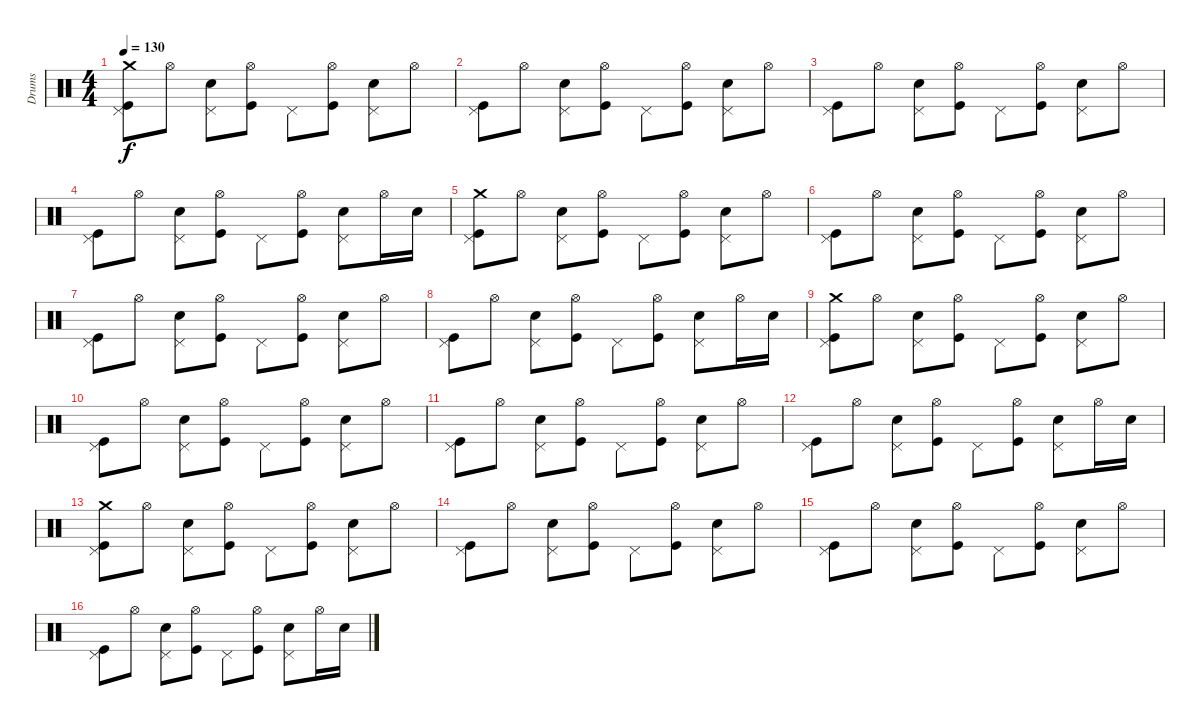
\track ("Drums" "Drums") {instrument percussion}
\staff {score}
\articulation defaults
\ts (4 4)
\tempo 130
\clef neutral
\ks c
("Kick (hit)" "Crash medium (hit)" "Pedal Hi-Hat (hit)").8{dy f} "Hi-Hat (open)".8 ("Electric Snare (hit)" "Pedal Hi-Hat (hit)").8 ("Kick (hit)" "Hi-Hat (open)").8 "Pedal Hi-Hat (hit)".8 ("Kick (hit)" "Hi-Hat (open)").8 ("Electric Snare (hit)" "Pedal Hi-Hat (hit)").8 "Hi-Hat (open)".8 |
("Kick (hit)" "Pedal Hi-Hat (hit)").8 "Hi-Hat (open)".8 ("Electric Snare (hit)" "Pedal Hi-Hat (hit)").8 ("Kick (hit)" "Hi-Hat (open)").8 "Pedal Hi-Hat (hit)".8 ("Kick (hit)" "Hi-Hat (open)").8 ("Electric Snare (hit)" "Pedal Hi-Hat (hit)").8 "Hi-Hat (open)".8 |
("Kick (hit)" "Pedal Hi-Hat (hit)").8 "Hi-Hat (open)".8 ("Electric Snare (hit)" "Pedal Hi-Hat (hit)").8 ("Kick (hit)" "Hi-Hat (open)").8 "Pedal Hi-Hat (hit)".8 ("Kick (hit)" "Hi-Hat (open)").8 ("Electric Snare (hit)" "Pedal Hi-Hat (hit)").8 "Hi-Hat (open)".8 |
("Kick (hit)" "Pedal Hi-Hat (hit)").8 "Hi-Hat (open)".8 ("Electric Snare (hit)" "Pedal Hi-Hat (hit)").8 ("Kick (hit)" "Hi-Hat (open)").8 "Pedal Hi-Hat (hit)".8 ("Kick (hit)" "Hi-Hat (open)").8 ("Electric Snare (hit)" "Pedal Hi-Hat (hit)").8 "Hi-Hat (open)".16 "Electric Snare (hit)".16 |
("Kick (hit)" "Crash medium (hit)" "Pedal Hi-Hat (hit)").8 "Hi-Hat (open)".8 ("Electric Snare (hit)" "Pedal Hi-Hat (hit)").8 ("Kick (hit)" "Hi-Hat (open)").8 "Pedal Hi-Hat (hit)".8 ("Kick (hit)" "Hi-Hat (open)").8 ("Electric Snare (hit)" "Pedal Hi-Hat (hit)").8 "Hi-Hat (open)".8 |
("Kick (hit)" "Pedal Hi-Hat (hit)").8 "Hi-Hat (open)".8 ("Electric Snare (hit)" "Pedal Hi-Hat (hit)").8 ("Kick (hit)" "Hi-Hat (open)").8 "Pedal Hi-Hat (hit)".8 ("Kick (hit)" "Hi-Hat (open)").8 ("Electric Snare (hit)" "Pedal Hi-Hat (hit)").8 "Hi-Hat (open)".8 |
("Kick (hit)" "Pedal Hi-Hat (hit)").8 "Hi-Hat (open)".8 ("Electric Snare (hit)" "Pedal Hi-Hat (hit)").8 ("Kick (hit)" "Hi-Hat (open)").8 "Pedal Hi-Hat (hit)".8 ("Kick (hit)" "Hi-Hat (open)").8 ("Electric Snare (hit)" "Pedal Hi-Hat (hit)").8 "Hi-Hat (open)".8 |
("Kick (hit)" "Pedal Hi-Hat (hit)").8 "Hi-Hat (open)".8 ("Electric Snare (hit)" "Pedal Hi-Hat (hit)").8 ("Kick (hit)" "Hi-Hat (open)").8 "Pedal Hi-Hat (hit)".8 ("Kick (hit)" "Hi-Hat (open)").8 ("Electric Snare (hit)" "Pedal Hi-Hat (hit)").8 "Hi-Hat (open)".16 "Electric Snare (hit)".16 |
("Kick (hit)" "Crash medium (hit)" "Pedal Hi-Hat (hit)").8 "Hi-Hat (open)".8 ("Electric Snare (hit)" "Pedal Hi-Hat (hit)").8 ("Kick (hit)" "Hi-Hat (open)").8 "Pedal Hi-Hat (hit)".8 ("Kick (hit)" "Hi-Hat (open)").8 ("Electric Snare (hit)" "Pedal Hi-Hat (hit)").8 "Hi-Hat (open)".8 |
("Kick (hit)" "Pedal Hi-Hat (hit)").8 "Hi-Hat (open)".8 ("Electric Snare (hit)" "Pedal Hi-Hat (hit)").8 ("Kick (hit)" "Hi-Hat (open)").8 "Pedal Hi-Hat (hit)".8 ("Kick (hit)" "Hi-Hat (open)").8 ("Electric Snare (hit)" "Pedal Hi-Hat (hit)").8 "Hi-Hat (open)".8 |
("Kick (hit)" "Pedal Hi-Hat (hit)").8 "Hi-Hat (open)".8 ("Electric Snare (hit)" "Pedal Hi-Hat (hit)").8 ("Kick (hit)" "Hi-Hat (open)").8 "Pedal Hi-Hat (hit)".8 ("Kick (hit)" "Hi-Hat (open)").8 ("Electric Snare (hit)" "Pedal Hi-Hat (hit)").8 "Hi-Hat (open)".8 |
("Kick (hit)" "Pedal Hi-Hat (hit)").8 "Hi-Hat (open)".8 ("Electric Snare (hit)" "Pedal Hi-Hat (hit)").8 ("Kick (hit)" "Hi-Hat (open)").8 "Pedal Hi-Hat (hit)".8 ("Kick (hit)" "Hi-Hat (open)").8 ("Electric Snare (hit)" "Pedal Hi-Hat (hit)").8 "Hi-Hat (open)".16 "Electric Snare (hit)".16 |
("Kick (hit)" "Crash medium (hit)" "Pedal Hi-Hat (hit)").8 "Hi-Hat (open)".8 ("Electric Snare (hit)" "Pedal Hi-Hat (hit)").8 ("Kick (hit)" "Hi-Hat (open)").8 "Pedal Hi-Hat (hit)".8 ("Kick (hit)" "Hi-Hat (open)").8 ("Electric Snare (hit)" "Pedal Hi-Hat (hit)").8 "Hi-Hat (open)".8 |
("Kick (hit)" "Pedal Hi-Hat (hit)").8 "Hi-Hat (open)".8 ("Electric Snare (hit)" "Pedal Hi-Hat (hit)").8 ("Kick (hit)" "Hi-Hat (open)").8 "Pedal Hi-Hat (hit)".8 ("Kick (hit)" "Hi-Hat (open)").8 ("Electric Snare (hit)" "Pedal Hi-Hat (hit)").8 "Hi-Hat (open)".8 |
("Kick (hit)" "Pedal Hi-Hat (hit)").8 "Hi-Hat (open)".8 ("Electric Snare (hit)" "Pedal Hi-Hat (hit)").8 ("Kick (hit)" "Hi-Hat (open)").8 "Pedal Hi-Hat (hit)".8 ("Kick (hit)" "Hi-Hat (open)").8 ("Electric Snare (hit)" "Pedal Hi-Hat (hit)").8 "Hi-Hat (open)".8 |
("Kick (hit)" "Pedal Hi-Hat (hit)").8 "Hi-Hat (open)".8 ("Electric Snare (hit)" "Pedal Hi-Hat (hit)").8 ("Kick (hit)" "Hi-Hat (open)").8 "Pedal Hi-Hat (hit)".8 ("Kick (hit)" "Hi-Hat (open)").8 ("Electric Snare (hit)" "Pedal Hi-Hat (hit)").8 "Hi-Hat (open)".16 "Electric Snare (hit)".16
